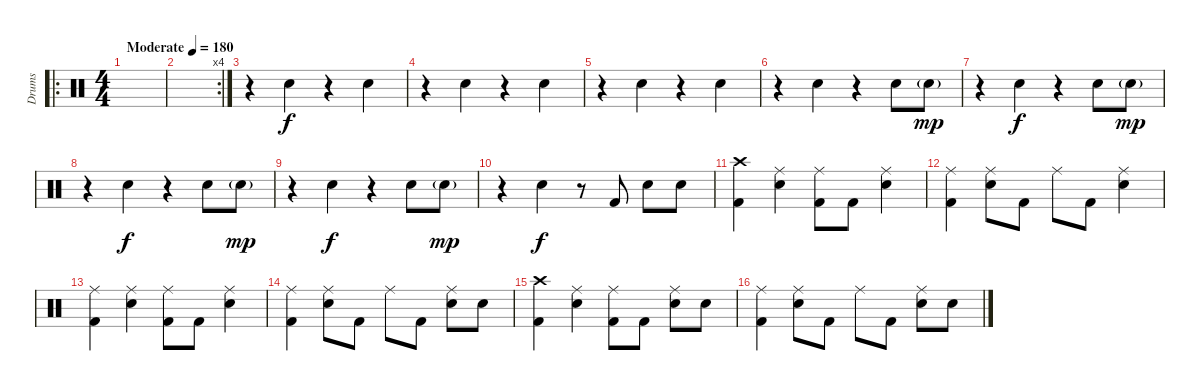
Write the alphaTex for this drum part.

\track ("Drums" "Drums") {instrument percussion}
\staff {score}
\articulation defaults
\ro
\ts (4 4)
\tempo (180 "Moderate")
\clef neutral
\ks c
|
\rc 4
|
r.4 "Hand Clap (hit)".4 r.4 "Hand Clap (hit)".4 |
r.4 "Hand Clap (hit)".4 r.4 "Hand Clap (hit)".4 |
r.4 "Hand Clap (hit)".4 r.4 "Hand Clap (hit)".4 |
r.4 "Hand Clap (hit)".4 r.4 "Hand Clap (hit)".8 "Hand Clap (hit)"{g}.8{dy mp} |
r.4 "Hand Clap (hit)".4{dy f} r.4 "Hand Clap (hit)".8 "Hand Clap (hit)"{g}.8{dy mp} |
r.4 "Hand Clap (hit)".4{dy f} r.4 "Hand Clap (hit)".8 "Hand Clap (hit)"{g}.8{dy mp} |
r.4 "Hand Clap (hit)".4{dy f} r.4 "Hand Clap (hit)".8 "Hand Clap (hit)"{g}.8{dy mp} |
r.4 "Hand Clap (hit)".4{dy f} r.8 "Kick (hit) 2".8 "Electric Snare (hit)".8 "Electric Snare (hit)".8 |
("Crash high (hit)" "Kick (hit) 2").4 ("Ride (middle)" "Electric Snare (hit)").4 ("Ride (middle)" "Kick (hit) 2").8 "Kick (hit) 2".8 ("Ride (middle)" "Electric Snare (hit)").4 |
("Ride (middle)" "Kick (hit) 2").4 ("Ride (middle)" "Electric Snare (hit)").8 "Kick (hit) 2".8 "Ride (middle)".8 "Kick (hit) 2".8 ("Ride (middle)" "Electric Snare (hit)").4 |
("Ride (middle)" "Kick (hit) 2").4 ("Ride (middle)" "Electric Snare (hit)").4 ("Ride (middle)" "Kick (hit) 2").8 "Kick (hit) 2".8 ("Ride (middle)" "Electric Snare (hit)").4 |
("Ride (middle)" "Kick (hit) 2").4 ("Ride (middle)" "Electric Snare (hit)").8 "Kick (hit) 2".8 "Ride (middle)".8 "Kick (hit) 2".8 ("Ride (middle)" "Electric Snare (hit)").8 "Hand Clap (hit)".8 |
("Crash high (hit)" "Kick (hit) 2").4 ("Ride (middle)" "Electric Snare (hit)").4 ("Ride (middle)" "Kick (hit) 2").8 "Kick (hit) 2".8 ("Ride (middle)" "Electric Snare (hit)").8 "Hand Clap (hit)".8 |
("Ride (middle)" "Kick (hit) 2").4 ("Ride (middle)" "Electric Snare (hit)").8 "Kick (hit) 2".8 "Ride (middle)".8 "Kick (hit) 2".8 ("Ride (middle)" "Electric Snare (hit)").8 "Electric Snare (hit)".8
